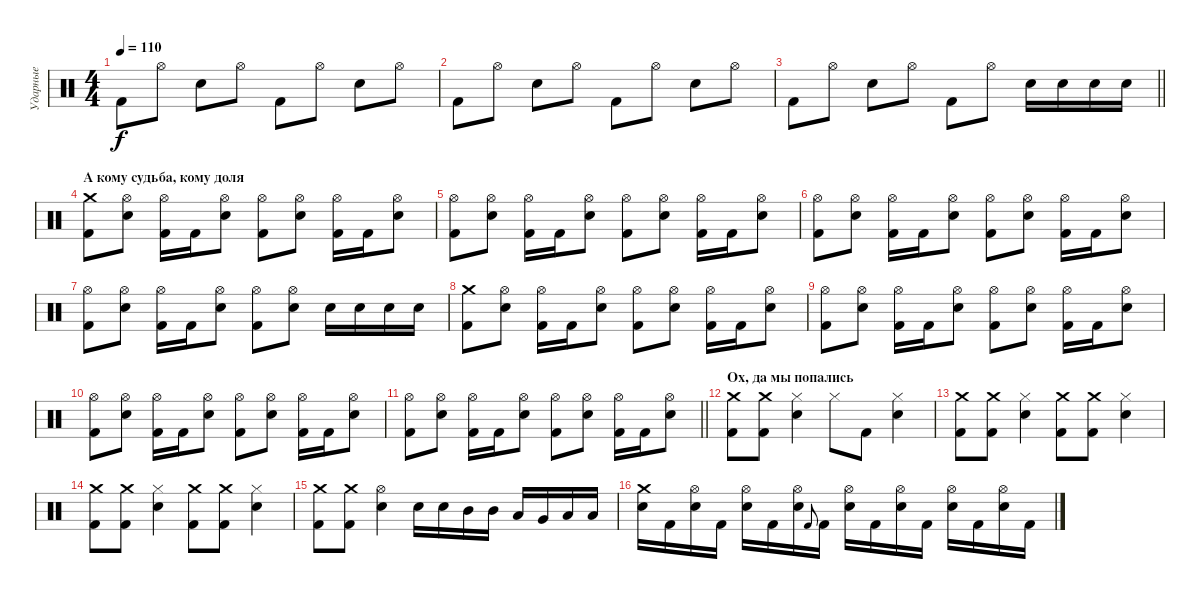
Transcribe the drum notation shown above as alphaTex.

\track ("Ударные" "Ударные") {instrument percussion}
\staff {score}
\articulation defaults
\ts (4 4)
\tempo 110
\clef neutral
\ks c "Kick (hit) 2".8{dy f} "Hi-Hat (open)".8 "Snare (hit) 2".8 "Hi-Hat (open)".8 "Kick (hit) 2".8 "Hi-Hat (open)".8 "Snare (hit) 2".8 "Hi-Hat (open)".8
|
"Kick (hit) 2".8 "Hi-Hat (open)".8 "Snare (hit) 2".8 "Hi-Hat (open)".8 "Kick (hit) 2".8 "Hi-Hat (open)".8 "Snare (hit) 2".8 "Hi-Hat (open)".8 |
\barLineRight lightlight "Kick (hit) 2".8 "Hi-Hat (open)".8 "Snare (hit) 2".8 "Hi-Hat (open)".8 "Kick (hit) 2".8 "Hi-Hat (open)".8 "Snare (hit) 2".16 "Snare (hit) 2".16 "Snare (hit) 2".16 "Snare (hit) 2".16
|
\section ("" "А кому судьба, кому доля")
("Crash medium (hit)" "Kick (hit) 2").8 ("Hi-Hat (open)" "Snare (hit) 2").8 ("Hi-Hat (open)" "Kick (hit) 2").16 "Kick (hit) 2".16 ("Hi-Hat (open)" "Snare (hit) 2").8 ("Hi-Hat (open)" "Kick (hit) 2").8 ("Hi-Hat (open)" "Snare (hit) 2").8 ("Hi-Hat (open)" "Kick (hit) 2").16 "Kick (hit) 2".16 ("Hi-Hat (open)" "Snare (hit) 2").8 |
("Hi-Hat (open)" "Kick (hit) 2").8 ("Hi-Hat (open)" "Snare (hit) 2").8 ("Hi-Hat (open)" "Kick (hit) 2").16 "Kick (hit) 2".16 ("Hi-Hat (open)" "Snare (hit) 2").8 ("Hi-Hat (open)" "Kick (hit) 2").8 ("Hi-Hat (open)" "Snare (hit) 2").8 ("Hi-Hat (open)" "Kick (hit) 2").16 "Kick (hit) 2".16 ("Hi-Hat (open)" "Snare (hit) 2").8 |
("Hi-Hat (open)" "Kick (hit) 2").8 ("Hi-Hat (open)" "Snare (hit) 2").8 ("Hi-Hat (open)" "Kick (hit) 2").16 "Kick (hit) 2".16 ("Hi-Hat (open)" "Snare (hit) 2").8 ("Hi-Hat (open)" "Kick (hit) 2").8 ("Hi-Hat (open)" "Snare (hit) 2").8 ("Hi-Hat (open)" "Kick (hit) 2").16 "Kick (hit) 2".16 ("Hi-Hat (open)" "Snare (hit) 2").8 |
("Hi-Hat (open)" "Kick (hit) 2").8 ("Hi-Hat (open)" "Snare (hit) 2").8 ("Hi-Hat (open)" "Kick (hit) 2").16 "Kick (hit) 2".16 ("Hi-Hat (open)" "Snare (hit) 2").8 ("Hi-Hat (open)" "Kick (hit) 2").8 ("Hi-Hat (open)" "Snare (hit) 2").8 "Snare (hit) 2".16 "Snare (hit) 2".16 "Snare (hit) 2".16 "Snare (hit) 2".16 |
("Crash medium (hit)" "Kick (hit) 2").8 ("Hi-Hat (open)" "Snare (hit) 2").8 ("Hi-Hat (open)" "Kick (hit) 2").16 "Kick (hit) 2".16 ("Hi-Hat (open)" "Snare (hit) 2").8 ("Hi-Hat (open)" "Kick (hit) 2").8 ("Hi-Hat (open)" "Snare (hit) 2").8 ("Hi-Hat (open)" "Kick (hit) 2").16 "Kick (hit) 2".16 ("Hi-Hat (open)" "Snare (hit) 2").8 |
("Hi-Hat (open)" "Kick (hit) 2").8 ("Hi-Hat (open)" "Snare (hit) 2").8 ("Hi-Hat (open)" "Kick (hit) 2").16 "Kick (hit) 2".16 ("Hi-Hat (open)" "Snare (hit) 2").8 ("Hi-Hat (open)" "Kick (hit) 2").8 ("Hi-Hat (open)" "Snare (hit) 2").8 ("Hi-Hat (open)" "Kick (hit) 2").16 "Kick (hit) 2".16 ("Hi-Hat (open)" "Snare (hit) 2").8 |
("Hi-Hat (open)" "Kick (hit) 2").8 ("Hi-Hat (open)" "Snare (hit) 2").8 ("Hi-Hat (open)" "Kick (hit) 2").16 "Kick (hit) 2".16 ("Hi-Hat (open)" "Snare (hit) 2").8 ("Hi-Hat (open)" "Kick (hit) 2").8 ("Hi-Hat (open)" "Snare (hit) 2").8 ("Hi-Hat (open)" "Kick (hit) 2").16 "Kick (hit) 2".16 ("Hi-Hat (open)" "Snare (hit) 2").8 |
\barLineRight lightlight
("Hi-Hat (open)" "Kick (hit) 2").8 ("Hi-Hat (open)" "Snare (hit) 2").8 ("Hi-Hat (open)" "Kick (hit) 2").16 "Kick (hit) 2".16 ("Hi-Hat (open)" "Snare (hit) 2").8 ("Hi-Hat (open)" "Kick (hit) 2").8 ("Hi-Hat (open)" "Snare (hit) 2").8 ("Hi-Hat (open)" "Kick (hit) 2").16 "Kick (hit) 2".16 ("Hi-Hat (open)" "Snare (hit) 2").8 |
\section ("" "Ох, да мы попались")
("Crash medium (hit)" "Kick (hit) 2").8 ("Crash medium (hit)" "Kick (hit) 2").8 ("Hi-Hat (closed)" "Snare (hit) 2").4 "Hi-Hat (closed)".8 "Kick (hit) 2".8 ("Snare (hit) 2" "Hi-Hat (closed)").4 |
("Crash medium (hit)" "Kick (hit) 2").8 ("Crash medium (hit)" "Kick (hit) 2").8 ("Hi-Hat (closed)" "Snare (hit) 2").4 ("Kick (hit) 2" "Crash medium (hit)").8 ("Crash medium (hit)" "Kick (hit) 2").8 ("Snare (hit) 2" "Hi-Hat (closed)").4 |
("Crash medium (hit)" "Kick (hit) 2").8 ("Crash medium (hit)" "Kick (hit) 2").8 ("Hi-Hat (closed)" "Snare (hit) 2").4 ("Kick (hit) 2" "Crash medium (hit)").8 ("Crash medium (hit)" "Kick (hit) 2").8 ("Snare (hit) 2" "Hi-Hat (closed)").4 |
("Crash medium (hit)" "Kick (hit) 2").8 ("Crash medium (hit)" "Kick (hit) 2").8 ("Hi-Hat (open)" "Snare (hit) 2").4 "Snare (hit) 2".16 "Snare (hit) 2".16 "Mid Tom (hit)".16 "Mid Tom (hit)".16 "Low Tom (hit)".16 "Very Low Tom (hit)".16 "Low Floor Tom (hit)".16 "Low Tom (hit)".16 |
("Crash medium (hit)" "Snare (hit) 2").16 "Kick (hit) 2".16 ("Hi-Hat (open)" "Snare (hit) 2").16 "Kick (hit) 2".16 ("Hi-Hat (open)" "Snare (hit) 2").16 "Kick (hit) 2".16 ("Hi-Hat (open)" "Snare (hit) 2").16 "Kick (hit) 2".8{gr onbeat} "Kick (hit) 2".16 ("Hi-Hat (open)" "Snare (hit) 2").16 "Kick (hit) 2".16 ("Hi-Hat (open)" "Snare (hit) 2").16 "Kick (hit) 2".16 ("Hi-Hat (open)" "Snare (hit) 2").16 "Kick (hit) 2".16 ("Snare (hit) 2" "Hi-Hat (open)").16 "Kick (hit) 2".16
